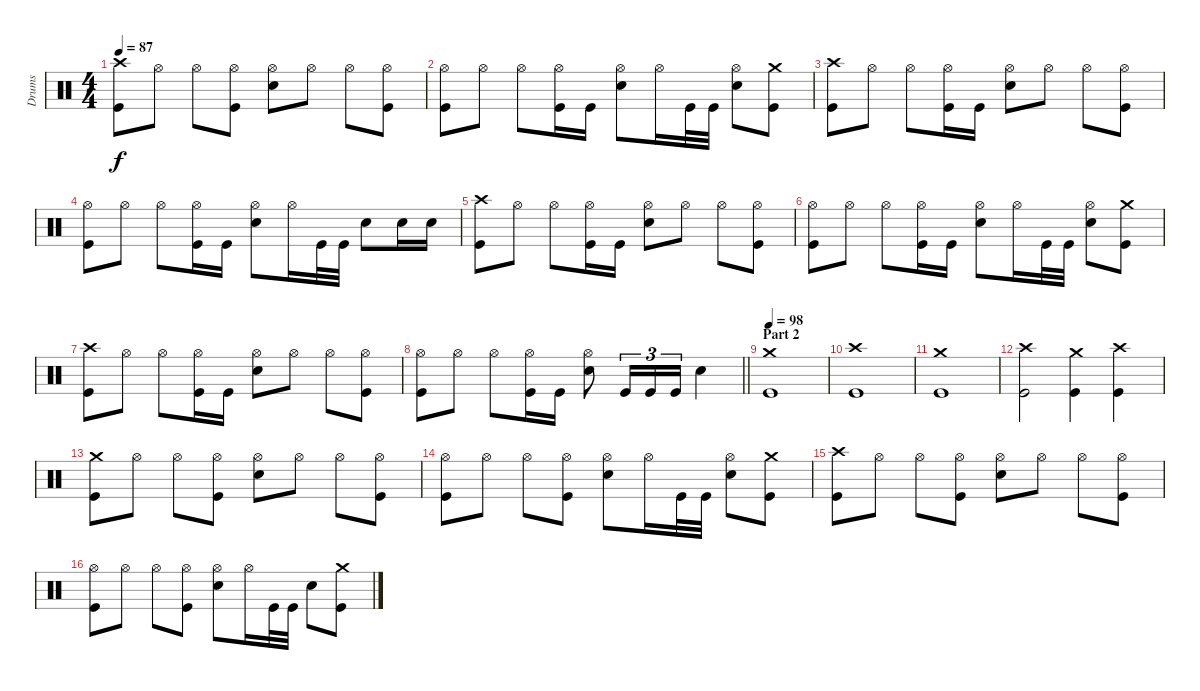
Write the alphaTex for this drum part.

\track ("Drums" "Drums") {instrument percussion}
\staff {score}
\articulation defaults
\ts (4 4)
\tempo 87
\clef neutral
\ks c
("Crash high (hit)" "Kick (hit)").8{dy f} "Hi-Hat (open)".8 "Hi-Hat (open)".8 ("Hi-Hat (open)" "Kick (hit)").8 ("Hi-Hat (open)" "Snare (hit) 2").8 "Hi-Hat (open)".8 "Hi-Hat (open)".8 ("Hi-Hat (open)" "Kick (hit)").8 |
("Hi-Hat (open)" "Kick (hit)").8 "Hi-Hat (open)".8 "Hi-Hat (open)".8 ("Hi-Hat (open)" "Kick (hit)").16 "Kick (hit)".16 ("Hi-Hat (open)" "Snare (hit) 2").8 "Hi-Hat (open)".16 "Kick (hit)".32 "Kick (hit)".32 ("Hi-Hat (open)" "Snare (hit) 2").8 ("Crash medium (hit)" "Kick (hit)").8 |
("Crash high (hit)" "Kick (hit)").8 "Hi-Hat (open)".8 "Hi-Hat (open)".8 ("Hi-Hat (open)" "Kick (hit)").16 "Kick (hit)".16 ("Hi-Hat (open)" "Snare (hit) 2").8 "Hi-Hat (open)".8 "Hi-Hat (open)".8 ("Hi-Hat (open)" "Kick (hit)").8 |
("Hi-Hat (open)" "Kick (hit)").8 "Hi-Hat (open)".8 "Hi-Hat (open)".8 ("Hi-Hat (open)" "Kick (hit)").16 "Kick (hit)".16 ("Hi-Hat (open)" "Snare (hit) 2").8 "Hi-Hat (open)".16 "Kick (hit)".32 "Kick (hit)".32 "Snare (hit) 2".8 "Snare (hit) 2".16 "Snare (hit) 2".16 |
("Crash high (hit)" "Kick (hit)").8 "Hi-Hat (open)".8 "Hi-Hat (open)".8 ("Hi-Hat (open)" "Kick (hit)").16 "Kick (hit)".16 ("Hi-Hat (open)" "Snare (hit) 2").8 "Hi-Hat (open)".8 "Hi-Hat (open)".8 ("Hi-Hat (open)" "Kick (hit)").8 |
("Hi-Hat (open)" "Kick (hit)").8 "Hi-Hat (open)".8 "Hi-Hat (open)".8 ("Hi-Hat (open)" "Kick (hit)").16 "Kick (hit)".16 ("Hi-Hat (open)" "Snare (hit) 2").8 "Hi-Hat (open)".16 "Kick (hit)".32 "Kick (hit)".32 ("Hi-Hat (open)" "Snare (hit) 2").8 ("Crash medium (hit)" "Kick (hit)").8 |
("Crash high (hit)" "Kick (hit)").8 "Hi-Hat (open)".8 "Hi-Hat (open)".8 ("Hi-Hat (open)" "Kick (hit)").16 "Kick (hit)".16 ("Hi-Hat (open)" "Snare (hit) 2").8 "Hi-Hat (open)".8 "Hi-Hat (open)".8 ("Hi-Hat (open)" "Kick (hit)").8 |
\barLineRight lightlight
("Hi-Hat (open)" "Kick (hit)").8 "Hi-Hat (open)".8 "Hi-Hat (open)".8 ("Hi-Hat (open)" "Kick (hit)").16 "Kick (hit)".16 ("Hi-Hat (open)" "Snare (hit) 2").8 "Kick (hit)".16{tu (3 2)} "Kick (hit)".16{tu (3 2)} "Kick (hit)".16{tu (3 2)} "Snare (hit) 2".4 |
\section ("" "Part 2")
\tempo 98
("Crash medium (hit)" "Kick (hit)").1 |
("Crash high (hit)" "Kick (hit)").1 |
("Crash medium (hit)" "Kick (hit)").1 |
("Crash high (hit)" "Kick (hit)").2 ("Crash medium (hit)" "Kick (hit)").4 ("Crash high (hit)" "Kick (hit)").4 |
("Crash medium (hit)" "Kick (hit)").8 "Hi-Hat (open)".8 "Hi-Hat (open)".8 ("Hi-Hat (open)" "Kick (hit)").8 ("Hi-Hat (open)" "Snare (hit) 2").8 "Hi-Hat (open)".8 "Hi-Hat (open)".8 ("Hi-Hat (open)" "Kick (hit)").8 |
("Hi-Hat (open)" "Kick (hit)").8 "Hi-Hat (open)".8 "Hi-Hat (open)".8 ("Hi-Hat (open)" "Kick (hit)").8 ("Hi-Hat (open)" "Snare (hit) 2").8 "Hi-Hat (open)".16 "Kick (hit)".32 "Kick (hit)".32 ("Hi-Hat (open)" "Snare (hit) 2").8 ("Crash medium (hit)" "Kick (hit)").8 |
("Crash high (hit)" "Kick (hit)").8 "Hi-Hat (open)".8 "Hi-Hat (open)".8 ("Hi-Hat (open)" "Kick (hit)").8 ("Hi-Hat (open)" "Snare (hit) 2").8 "Hi-Hat (open)".8 "Hi-Hat (open)".8 ("Hi-Hat (open)" "Kick (hit)").8 |
("Hi-Hat (open)" "Kick (hit)").8 "Hi-Hat (open)".8 "Hi-Hat (open)".8 ("Hi-Hat (open)" "Kick (hit)").8 ("Hi-Hat (open)" "Snare (hit) 2").8 "Hi-Hat (open)".16 "Kick (hit)".32 "Kick (hit)".32 "Snare (hit) 2".8 ("Crash medium (hit)" "Kick (hit)").8
